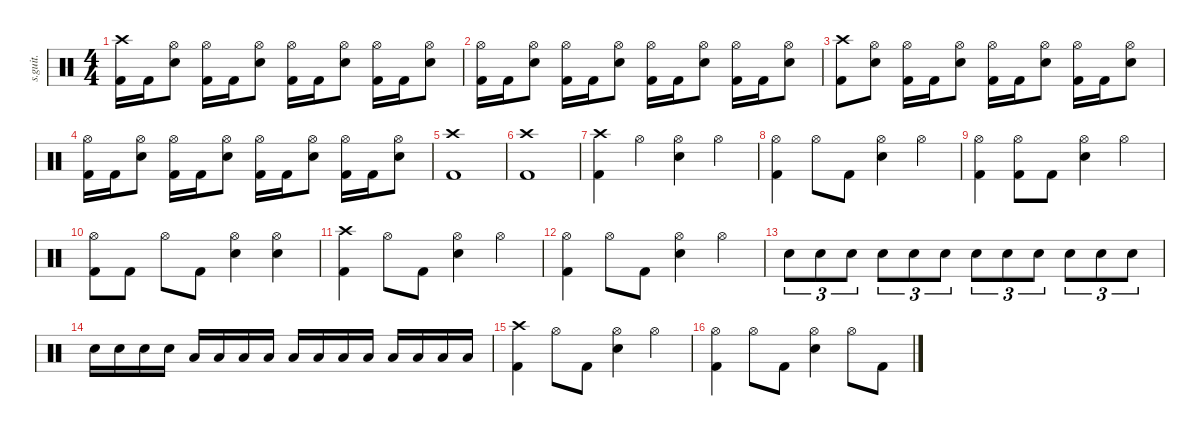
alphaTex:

\defaultSystemsLayout 4
\hideDynamics
\bracketExtendMode nobrackets
\track ("" "s.guit.") {instrument percussion}
\staff {score}
\articulation defaults
\ts (4 4)
\tempo (160 hide)
\clef neutral
\ks c
("Crash high (hit)" "Kick (hit) 2").16{dy f} "Kick (hit) 2".16 ("Hi-Hat (open)" "Snare (hit) 2").8 ("Hi-Hat (open)" "Kick (hit) 2").16 "Kick (hit) 2".16 ("Hi-Hat (open)" "Snare (hit) 2").8 ("Hi-Hat (open)" "Kick (hit) 2").16 "Kick (hit) 2".16 ("Hi-Hat (open)" "Snare (hit) 2").8 ("Hi-Hat (open)" "Kick (hit) 2").16 "Kick (hit) 2".16 ("Hi-Hat (open)" "Snare (hit) 2").8 |
("Hi-Hat (open)" "Kick (hit) 2").16 "Kick (hit) 2".16 ("Hi-Hat (open)" "Snare (hit) 2").8 ("Hi-Hat (open)" "Kick (hit) 2").16 "Kick (hit) 2".16 ("Hi-Hat (open)" "Snare (hit) 2").8 ("Hi-Hat (open)" "Kick (hit) 2").16 "Kick (hit) 2".16 ("Hi-Hat (open)" "Snare (hit) 2").8 ("Hi-Hat (open)" "Kick (hit) 2").16 "Kick (hit) 2".16 ("Hi-Hat (open)" "Snare (hit) 2").8 |
("Crash high (hit)" "Kick (hit) 2").8 ("Hi-Hat (open)" "Snare (hit) 2").8 ("Hi-Hat (open)" "Kick (hit) 2").16 "Kick (hit) 2".16 ("Hi-Hat (open)" "Snare (hit) 2").8 ("Hi-Hat (open)" "Kick (hit) 2").16 "Kick (hit) 2".16 ("Hi-Hat (open)" "Snare (hit) 2").8 ("Hi-Hat (open)" "Kick (hit) 2").16 "Kick (hit) 2".16 ("Hi-Hat (open)" "Snare (hit) 2").8 |
("Hi-Hat (open)" "Kick (hit) 2").16 "Kick (hit) 2".16 ("Hi-Hat (open)" "Snare (hit) 2").8 ("Hi-Hat (open)" "Kick (hit) 2").16 "Kick (hit) 2".16 ("Hi-Hat (open)" "Snare (hit) 2").8 ("Hi-Hat (open)" "Kick (hit) 2").16 "Kick (hit) 2".16 ("Hi-Hat (open)" "Snare (hit) 2").8 ("Hi-Hat (open)" "Kick (hit) 2").16 "Kick (hit) 2".16 ("Hi-Hat (open)" "Snare (hit) 2").8 |
("Crash high (hit)" "Kick (hit) 2").1 |
("Crash high (hit)" "Kick (hit) 2").1 |
("Crash high (hit)" "Kick (hit) 2").4 "Hi-Hat (open)".4 ("Hi-Hat (open)" "Snare (hit) 2").4 "Hi-Hat (open)".4 |
("Hi-Hat (open)" "Kick (hit) 2").4 "Hi-Hat (open)".8 "Kick (hit) 2".8 ("Hi-Hat (open)" "Snare (hit) 2").4 "Hi-Hat (open)".4 |
("Hi-Hat (open)" "Kick (hit) 2").4 ("Hi-Hat (open)" "Kick (hit) 2").8 "Kick (hit) 2".8 ("Hi-Hat (open)" "Snare (hit) 2").4 "Hi-Hat (open)".4 |
("Hi-Hat (open)" "Kick (hit) 2").8 "Kick (hit) 2".8 "Hi-Hat (open)".8 "Kick (hit) 2".8 ("Hi-Hat (open)" "Snare (hit) 2").4 ("Hi-Hat (open)" "Snare (hit) 2").4 |
("Crash high (hit)" "Kick (hit) 2").4 "Hi-Hat (open)".8 "Kick (hit) 2".8 ("Hi-Hat (open)" "Snare (hit) 2").4 "Hi-Hat (open)".4 |
("Hi-Hat (open)" "Kick (hit) 2").4 "Hi-Hat (open)".8 "Kick (hit) 2".8 ("Hi-Hat (open)" "Snare (hit) 2").4 "Hi-Hat (open)".4 |
"Snare (hit) 2".8{tu (3 2)} "Snare (hit) 2".8{tu (3 2)} "Snare (hit) 2".8{tu (3 2)} "Snare (hit) 2".8{tu (3 2)} "Snare (hit) 2".8{tu (3 2)} "Snare (hit) 2".8{tu (3 2)} "Snare (hit) 2".8{tu (3 2)} "Snare (hit) 2".8{tu (3 2)} "Snare (hit) 2".8{tu (3 2)} "Snare (hit) 2".8{tu (3 2)} "Snare (hit) 2".8{tu (3 2)} "Snare (hit) 2".8{tu (3 2)} |
"Snare (hit) 2".16 "Snare (hit) 2".16 "Snare (hit) 2".16 "Snare (hit) 2".16 "Low Tom (hit)".16 "Low Tom (hit)".16 "Low Tom (hit)".16 "Low Tom (hit)".16 "Low Tom (hit)".16 "Low Tom (hit)".16 "Low Tom (hit)".16 "Low Tom (hit)".16 "Low Floor Tom (hit)".16 "Low Floor Tom (hit)".16 "Low Floor Tom (hit)".16 "Low Floor Tom (hit)".16 |
("Crash high (hit)" "Kick (hit) 2").4 "Hi-Hat (open)".8 "Kick (hit) 2".8 ("Hi-Hat (open)" "Snare (hit) 2").4 "Hi-Hat (open)".4 |
("Hi-Hat (open)" "Kick (hit) 2").4 "Hi-Hat (open)".8 "Kick (hit) 2".8 ("Hi-Hat (open)" "Snare (hit) 2").4 "Hi-Hat (open)".8 "Kick (hit) 2".8
